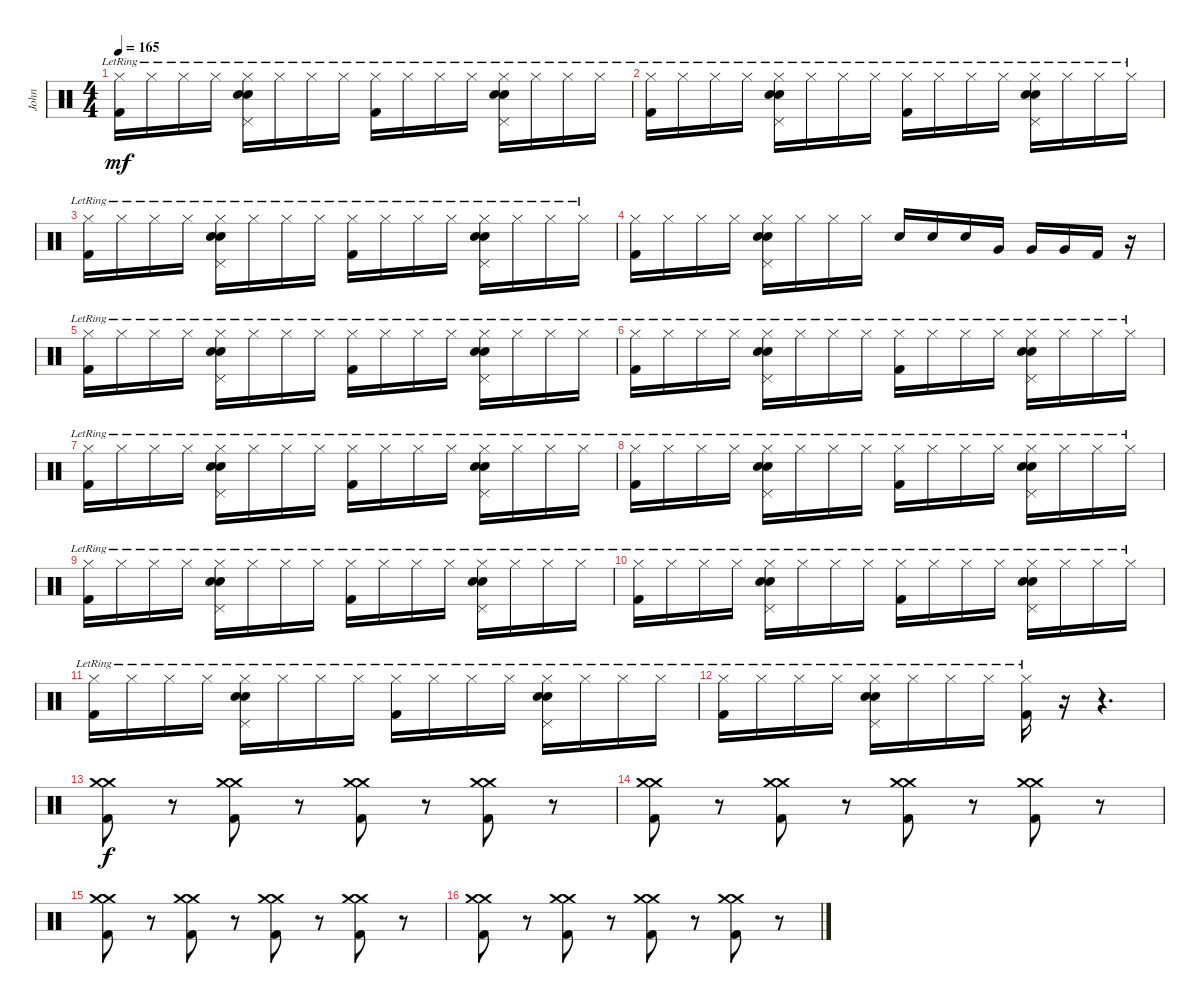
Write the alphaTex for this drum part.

\track ("John" "John") {instrument percussion}
\staff {score}
\articulation defaults
\ts (4 4)
\tempo 165
\clef neutral
\ks c
("Hi-Hat (closed)"{lr} "Kick (hit) 2").16{dy mf} "Hi-Hat (closed)"{lr}.16 "Hi-Hat (closed)"{lr}.16 "Hi-Hat (closed)"{lr}.16 ("Hi-Hat (closed)"{lr} "Pedal Hi-Hat (hit)" "Electric Snare (hit)" "Electric Snare (hit)").16 "Hi-Hat (closed)"{lr}.16 "Hi-Hat (closed)"{lr}.16 "Hi-Hat (closed)"{lr}.16 ("Hi-Hat (closed)"{lr} "Kick (hit) 2").16 "Hi-Hat (closed)"{lr}.16 "Hi-Hat (closed)"{lr}.16 "Hi-Hat (closed)"{lr}.16 ("Hi-Hat (closed)"{lr} "Pedal Hi-Hat (hit)" "Electric Snare (hit)" "Electric Snare (hit)").16 "Hi-Hat (closed)"{lr}.16 "Hi-Hat (closed)"{lr}.16 "Hi-Hat (closed)"{lr}.16 |
("Hi-Hat (closed)"{lr} "Kick (hit) 2").16 "Hi-Hat (closed)"{lr}.16 "Hi-Hat (closed)"{lr}.16 "Hi-Hat (closed)"{lr}.16 ("Hi-Hat (closed)"{lr} "Pedal Hi-Hat (hit)" "Electric Snare (hit)" "Electric Snare (hit)").16 "Hi-Hat (closed)"{lr}.16 "Hi-Hat (closed)"{lr}.16 "Hi-Hat (closed)"{lr}.16 ("Hi-Hat (closed)"{lr} "Kick (hit) 2").16 "Hi-Hat (closed)"{lr}.16 "Hi-Hat (closed)"{lr}.16 "Hi-Hat (closed)"{lr}.16 ("Hi-Hat (closed)"{lr} "Pedal Hi-Hat (hit)" "Electric Snare (hit)" "Electric Snare (hit)").16 "Hi-Hat (closed)"{lr}.16 "Hi-Hat (closed)"{lr}.16 "Hi-Hat (closed)"{lr}.16 |
("Hi-Hat (closed)"{lr} "Kick (hit) 2").16 "Hi-Hat (closed)"{lr}.16 "Hi-Hat (closed)"{lr}.16 "Hi-Hat (closed)"{lr}.16 ("Hi-Hat (closed)"{lr} "Pedal Hi-Hat (hit)" "Electric Snare (hit)" "Electric Snare (hit)").16 "Hi-Hat (closed)"{lr}.16 "Hi-Hat (closed)"{lr}.16 "Hi-Hat (closed)"{lr}.16 ("Hi-Hat (closed)"{lr} "Kick (hit) 2").16 "Hi-Hat (closed)"{lr}.16 "Hi-Hat (closed)"{lr}.16 "Hi-Hat (closed)"{lr}.16 ("Hi-Hat (closed)"{lr} "Pedal Hi-Hat (hit)" "Electric Snare (hit)" "Electric Snare (hit)").16 "Hi-Hat (closed)"{lr}.16 "Hi-Hat (closed)"{lr}.16 "Hi-Hat (closed)"{lr}.16 |
("Hi-Hat (closed)" "Kick (hit) 2").16 "Hi-Hat (closed)".16 "Hi-Hat (closed)".16 "Hi-Hat (closed)".16 ("Hi-Hat (closed)" "Pedal Hi-Hat (hit)" "Electric Snare (hit)" "Electric Snare (hit)").16 "Hi-Hat (closed)".16 "Hi-Hat (closed)".16 "Hi-Hat (closed)".16 "Electric Snare (hit)".16 "Electric Snare (hit)".16 "Electric Snare (hit)".16 "Very Low Tom (hit)".16 "Very Low Tom (hit)".16 "Very Low Tom (hit)".16 "Kick (hit) 2".16 r.16 |
("Hi-Hat (closed)"{lr} "Kick (hit) 2").16 "Hi-Hat (closed)"{lr}.16 "Hi-Hat (closed)"{lr}.16 "Hi-Hat (closed)"{lr}.16 ("Hi-Hat (closed)"{lr} "Pedal Hi-Hat (hit)" "Electric Snare (hit)" "Electric Snare (hit)").16 "Hi-Hat (closed)"{lr}.16 "Hi-Hat (closed)"{lr}.16 "Hi-Hat (closed)"{lr}.16 ("Hi-Hat (closed)"{lr} "Kick (hit) 2").16 "Hi-Hat (closed)"{lr}.16 "Hi-Hat (closed)"{lr}.16 "Hi-Hat (closed)"{lr}.16 ("Hi-Hat (closed)"{lr} "Pedal Hi-Hat (hit)" "Electric Snare (hit)" "Electric Snare (hit)").16 "Hi-Hat (closed)"{lr}.16 "Hi-Hat (closed)"{lr}.16 "Hi-Hat (closed)"{lr}.16 |
("Hi-Hat (closed)"{lr} "Kick (hit) 2").16 "Hi-Hat (closed)"{lr}.16 "Hi-Hat (closed)"{lr}.16 "Hi-Hat (closed)"{lr}.16 ("Hi-Hat (closed)"{lr} "Pedal Hi-Hat (hit)" "Electric Snare (hit)" "Electric Snare (hit)").16 "Hi-Hat (closed)"{lr}.16 "Hi-Hat (closed)"{lr}.16 "Hi-Hat (closed)"{lr}.16 ("Hi-Hat (closed)"{lr} "Kick (hit) 2").16 "Hi-Hat (closed)"{lr}.16 "Hi-Hat (closed)"{lr}.16 "Hi-Hat (closed)"{lr}.16 ("Hi-Hat (closed)"{lr} "Pedal Hi-Hat (hit)" "Electric Snare (hit)" "Electric Snare (hit)").16 "Hi-Hat (closed)"{lr}.16 "Hi-Hat (closed)"{lr}.16 "Hi-Hat (closed)"{lr}.16 |
("Hi-Hat (closed)"{lr} "Kick (hit) 2").16 "Hi-Hat (closed)"{lr}.16 "Hi-Hat (closed)"{lr}.16 "Hi-Hat (closed)"{lr}.16 ("Hi-Hat (closed)"{lr} "Pedal Hi-Hat (hit)" "Electric Snare (hit)" "Electric Snare (hit)").16 "Hi-Hat (closed)"{lr}.16 "Hi-Hat (closed)"{lr}.16 "Hi-Hat (closed)"{lr}.16 ("Hi-Hat (closed)"{lr} "Kick (hit) 2").16 "Hi-Hat (closed)"{lr}.16 "Hi-Hat (closed)"{lr}.16 "Hi-Hat (closed)"{lr}.16 ("Hi-Hat (closed)"{lr} "Pedal Hi-Hat (hit)" "Electric Snare (hit)" "Electric Snare (hit)").16 "Hi-Hat (closed)"{lr}.16 "Hi-Hat (closed)"{lr}.16 "Hi-Hat (closed)"{lr}.16 |
("Hi-Hat (closed)"{lr} "Kick (hit) 2").16 "Hi-Hat (closed)"{lr}.16 "Hi-Hat (closed)"{lr}.16 "Hi-Hat (closed)"{lr}.16 ("Hi-Hat (closed)"{lr} "Pedal Hi-Hat (hit)" "Electric Snare (hit)" "Electric Snare (hit)").16 "Hi-Hat (closed)"{lr}.16 "Hi-Hat (closed)"{lr}.16 "Hi-Hat (closed)"{lr}.16 ("Hi-Hat (closed)"{lr} "Kick (hit) 2").16 "Hi-Hat (closed)"{lr}.16 "Hi-Hat (closed)"{lr}.16 "Hi-Hat (closed)"{lr}.16 ("Hi-Hat (closed)"{lr} "Pedal Hi-Hat (hit)" "Electric Snare (hit)" "Electric Snare (hit)").16 "Hi-Hat (closed)"{lr}.16 "Hi-Hat (closed)"{lr}.16 "Hi-Hat (closed)"{lr}.16 |
("Hi-Hat (closed)"{lr} "Kick (hit) 2").16 "Hi-Hat (closed)"{lr}.16 "Hi-Hat (closed)"{lr}.16 "Hi-Hat (closed)"{lr}.16 ("Hi-Hat (closed)"{lr} "Pedal Hi-Hat (hit)" "Electric Snare (hit)" "Electric Snare (hit)").16 "Hi-Hat (closed)"{lr}.16 "Hi-Hat (closed)"{lr}.16 "Hi-Hat (closed)"{lr}.16 ("Hi-Hat (closed)"{lr} "Kick (hit) 2").16 "Hi-Hat (closed)"{lr}.16 "Hi-Hat (closed)"{lr}.16 "Hi-Hat (closed)"{lr}.16 ("Hi-Hat (closed)"{lr} "Pedal Hi-Hat (hit)" "Electric Snare (hit)" "Electric Snare (hit)").16 "Hi-Hat (closed)"{lr}.16 "Hi-Hat (closed)"{lr}.16 "Hi-Hat (closed)"{lr}.16 |
("Hi-Hat (closed)"{lr} "Kick (hit) 2").16 "Hi-Hat (closed)"{lr}.16 "Hi-Hat (closed)"{lr}.16 "Hi-Hat (closed)"{lr}.16 ("Hi-Hat (closed)"{lr} "Pedal Hi-Hat (hit)" "Electric Snare (hit)" "Electric Snare (hit)").16 "Hi-Hat (closed)"{lr}.16 "Hi-Hat (closed)"{lr}.16 "Hi-Hat (closed)"{lr}.16 ("Hi-Hat (closed)"{lr} "Kick (hit) 2").16 "Hi-Hat (closed)"{lr}.16 "Hi-Hat (closed)"{lr}.16 "Hi-Hat (closed)"{lr}.16 ("Hi-Hat (closed)"{lr} "Pedal Hi-Hat (hit)" "Electric Snare (hit)" "Electric Snare (hit)").16 "Hi-Hat (closed)"{lr}.16 "Hi-Hat (closed)"{lr}.16 "Hi-Hat (closed)"{lr}.16 |
("Hi-Hat (closed)"{lr} "Kick (hit) 2").16 "Hi-Hat (closed)"{lr}.16 "Hi-Hat (closed)"{lr}.16 "Hi-Hat (closed)"{lr}.16 ("Hi-Hat (closed)"{lr} "Pedal Hi-Hat (hit)" "Electric Snare (hit)" "Electric Snare (hit)").16 "Hi-Hat (closed)"{lr}.16 "Hi-Hat (closed)"{lr}.16 "Hi-Hat (closed)"{lr}.16 ("Hi-Hat (closed)"{lr} "Kick (hit) 2").16 "Hi-Hat (closed)"{lr}.16 "Hi-Hat (closed)"{lr}.16 "Hi-Hat (closed)"{lr}.16 ("Hi-Hat (closed)"{lr} "Pedal Hi-Hat (hit)" "Electric Snare (hit)" "Electric Snare (hit)").16 "Hi-Hat (closed)"{lr}.16 "Hi-Hat (closed)"{lr}.16 "Hi-Hat (closed)"{lr}.16 |
("Hi-Hat (closed)"{lr} "Kick (hit) 2").16 "Hi-Hat (closed)"{lr}.16 "Hi-Hat (closed)"{lr}.16 "Hi-Hat (closed)"{lr}.16 ("Hi-Hat (closed)"{lr} "Pedal Hi-Hat (hit)" "Electric Snare (hit)" "Electric Snare (hit)").16 "Hi-Hat (closed)"{lr}.16 "Hi-Hat (closed)"{lr}.16 "Hi-Hat (closed)"{lr}.16 ("Hi-Hat (closed)"{lr} "Kick (hit) 2").16 r.16 r.4{d} |
("Crash medium (hit)" "Crash medium (hit)" "Kick (hit) 2").8{dy f} r.8 ("Crash medium (hit)" "Crash medium (hit)" "Kick (hit) 2").8 r.8 ("Crash medium (hit)" "Crash medium (hit)" "Kick (hit) 2").8 r.8 ("Crash medium (hit)" "Crash medium (hit)" "Kick (hit) 2").8 r.8 |
("Crash medium (hit)" "Crash medium (hit)" "Kick (hit) 2").8 r.8 ("Crash medium (hit)" "Crash medium (hit)" "Kick (hit) 2").8 r.8 ("Crash medium (hit)" "Crash medium (hit)" "Kick (hit) 2").8 r.8 ("Crash medium (hit)" "Crash medium (hit)" "Kick (hit) 2").8 r.8 |
("Crash medium (hit)" "Crash medium (hit)" "Kick (hit) 2").8 r.8 ("Crash medium (hit)" "Crash medium (hit)" "Kick (hit) 2").8 r.8 ("Crash medium (hit)" "Crash medium (hit)" "Kick (hit) 2").8 r.8 ("Crash medium (hit)" "Crash medium (hit)" "Kick (hit) 2").8 r.8 |
("Crash medium (hit)" "Crash medium (hit)" "Kick (hit) 2").8 r.8 ("Crash medium (hit)" "Crash medium (hit)" "Kick (hit) 2").8 r.8 ("Crash medium (hit)" "Crash medium (hit)" "Kick (hit) 2").8 r.8 ("Crash medium (hit)" "Crash medium (hit)" "Kick (hit) 2").8 r.8
